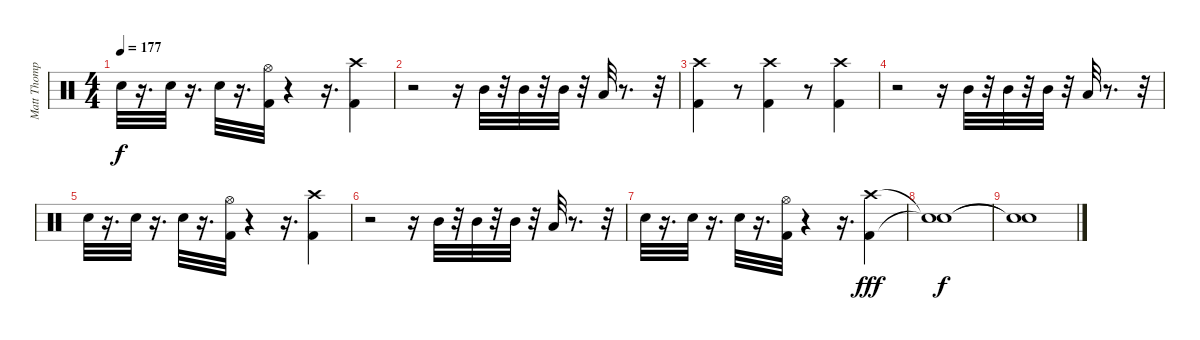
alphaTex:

\track ("Matt Thompson" "Matt Thomp") {instrument percussion}
\staff {score}
\articulation defaults
\ts (4 4)
\tempo 177
\clef neutral
\ks c "Snare (hit) 2".32{dy f}
r.16{d} "Snare (hit) 2".32 r.16{d} "Snare (hit) 2".32 r.16{d} ("Hi-Hat (open)" "Kick (hit) 2").32 r.4 r.16{d} ("Crash high (hit)" "Kick (hit) 2").4 |
r.2 r.16 "Mid Tom (hit)".32 r.32 "Mid Tom (hit)".32 r.32 "Mid Tom (hit)".32 r.32 "Low Tom (hit)".32 r.8{d} r.32 |
("Crash high (hit)" "Kick (hit) 2").4 r.8 ("Crash high (hit)" "Kick (hit) 2").4 r.8 ("Crash high (hit)" "Kick (hit) 2").4 |
r.2 r.16 "Mid Tom (hit)".32 r.32 "Mid Tom (hit)".32 r.32 "Mid Tom (hit)".32 r.32 "Low Tom (hit)".32 r.8{d} r.32 |
"Snare (hit) 2".32 r.16{d} "Snare (hit) 2".32 r.16{d} "Snare (hit) 2".32 r.16{d} ("Hi-Hat (open)" "Kick (hit) 2").32 r.4 r.16{d} ("Crash high (hit)" "Kick (hit) 2").4 |
r.2 r.16 "Mid Tom (hit)".32 r.32 "Mid Tom (hit)".32 r.32 "Mid Tom (hit)".32 r.32 "Low Tom (hit)".32 r.8{d} r.32 |
"Snare (hit) 2".32 r.16{d} "Snare (hit) 2".32 r.16{d} "Snare (hit) 2".32 r.16{d} ("Hi-Hat (open)" "Kick (hit) 2").32 r.4 r.16{d} ("Crash high (hit)" "Kick (hit) 2").4{dy fff} |
("Snare (hit)"{t} "Snare (hit)"{t}).1{dy f} |
("Snare (hit)"{t} "Snare (hit)"{t}).1
